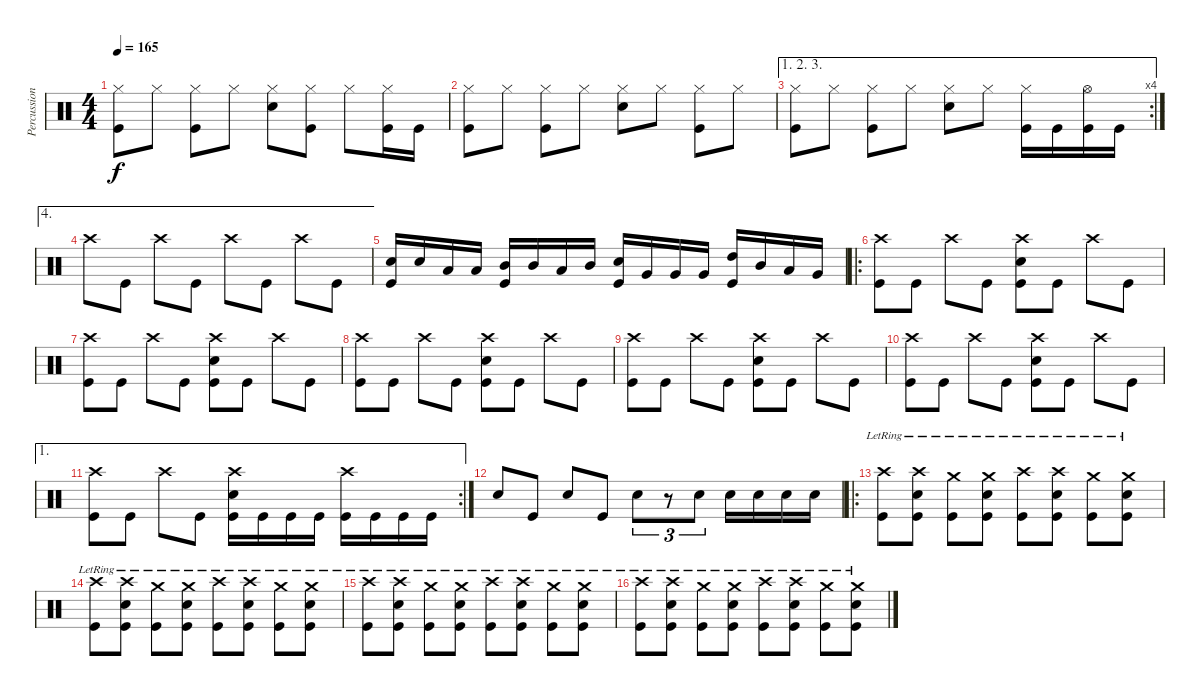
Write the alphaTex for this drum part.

\track ("Percussion" "Percussion") {instrument percussion}
\staff {score}
\articulation defaults
\ts (4 4)
\tempo 165
\clef neutral
\ks c
("Hi-Hat (closed)" "Kick (hit)").8{dy f} "Hi-Hat (closed)".8 ("Hi-Hat (closed)" "Kick (hit)").8 "Hi-Hat (closed)".8 ("Hi-Hat (closed)" "Electric Snare (hit)").8 ("Hi-Hat (closed)" "Kick (hit)").8 "Hi-Hat (closed)".8 ("Hi-Hat (closed)" "Kick (hit)").16 "Kick (hit)".16 |
("Hi-Hat (closed)" "Kick (hit)").8 "Hi-Hat (closed)".8 ("Hi-Hat (closed)" "Kick (hit)").8 "Hi-Hat (closed)".8 ("Hi-Hat (closed)" "Electric Snare (hit)").8 "Hi-Hat (closed)".8 ("Hi-Hat (closed)" "Kick (hit)").8 "Hi-Hat (closed)".8 |
\ae (1 2 3)
\rc 4
("Hi-Hat (closed)" "Kick (hit)").8 "Hi-Hat (closed)".8 ("Hi-Hat (closed)" "Kick (hit)").8 "Hi-Hat (closed)".8 ("Hi-Hat (closed)" "Electric Snare (hit)").8 "Hi-Hat (closed)".8 ("Hi-Hat (closed)" "Kick (hit)").16 "Kick (hit)".16 ("Hi-Hat (open)" "Kick (hit)").16 "Kick (hit)".16 |
\ae 4 "Crash high (hit)".8 "Kick (hit)".8 "Crash high (hit)".8 "Kick (hit)".8 "Crash high (hit)".8 "Kick (hit)".8 "Crash high (hit)".8 "Kick (hit)".8
|
("Electric Snare (hit)" "Kick (hit)").16 "Electric Snare (hit)".16 "Low Tom (hit)".16 "Low Tom (hit)".16 ("Mid Tom (hit)" "Kick (hit)").16 "Mid Tom (hit)".16 "Low Tom (hit)".16 "Mid Tom (hit)".16 ("Electric Snare (hit)" "Kick (hit)").16 "Very Low Tom (hit)".16 "Very Low Tom (hit)".16 "Very Low Tom (hit)".16 ("High Tom (hit)" "Kick (hit)").16 "Mid Tom (hit)".16 "Low Tom (hit)".16 "Very Low Tom (hit)".16 |
\ro
("Crash high (hit)" "Kick (hit)").8 "Kick (hit)".8 "Crash high (hit)".8 "Kick (hit)".8 ("Crash high (hit)" "Electric Snare (hit)" "Kick (hit)").8 "Kick (hit)".8 "Crash high (hit)".8 "Kick (hit)".8 |
("Crash high (hit)" "Kick (hit)").8 "Kick (hit)".8 "Crash high (hit)".8 "Kick (hit)".8 ("Crash high (hit)" "Electric Snare (hit)" "Kick (hit)").8 "Kick (hit)".8 "Crash high (hit)".8 "Kick (hit)".8 |
("Crash high (hit)" "Kick (hit)").8 "Kick (hit)".8 "Crash high (hit)".8 "Kick (hit)".8 ("Crash high (hit)" "Electric Snare (hit)" "Kick (hit)").8 "Kick (hit)".8 "Crash high (hit)".8 "Kick (hit)".8 |
("Crash high (hit)" "Kick (hit)").8 "Kick (hit)".8 "Crash high (hit)".8 "Kick (hit)".8 ("Crash high (hit)" "Electric Snare (hit)" "Kick (hit)").8 "Kick (hit)".8 "Crash high (hit)".8 "Kick (hit)".8 |
("Crash high (hit)" "Kick (hit)").8 "Kick (hit)".8 "Crash high (hit)".8 "Kick (hit)".8 ("Crash high (hit)" "Electric Snare (hit)" "Kick (hit)").8 "Kick (hit)".8 "Crash high (hit)".8 "Kick (hit)".8 |
\ae 1
\rc 2
("Crash high (hit)" "Kick (hit)").8 "Kick (hit)".8 "Crash high (hit)".8 "Kick (hit)".8 ("Crash high (hit)" "Electric Snare (hit)" "Kick (hit)").16 "Kick (hit)".16 "Kick (hit)".16 "Kick (hit)".16 ("Crash high (hit)" "Kick (hit)").16 "Kick (hit)".16 "Kick (hit)".16 "Kick (hit)".16 |
"Electric Snare (hit)".8 "Kick (hit)".8 "Electric Snare (hit)".8 "Kick (hit)".8 "Electric Snare (hit)".8{tu (3 2)} r.8{tu (3 2)} "Electric Snare (hit)".8{tu (3 2)} "Electric Snare (hit)".16 "Electric Snare (hit)".16 "Electric Snare (hit)".16 "Electric Snare (hit)".16 |
\ro
("Crash high (hit)"{lr} "Kick (hit)").8 ("Crash high (hit)"{lr} "Electric Snare (hit)" "Kick (hit)").8 ("Crash medium (hit)"{lr} "Kick (hit)").8 ("Crash medium (hit)"{lr} "Electric Snare (hit)" "Kick (hit)").8 ("Crash high (hit)"{lr} "Kick (hit)").8 ("Crash high (hit)"{lr} "Electric Snare (hit)" "Kick (hit)").8 ("Crash medium (hit)"{lr} "Kick (hit)").8 ("Crash medium (hit)"{lr} "Electric Snare (hit)" "Kick (hit)").8 |
("Crash high (hit)"{lr} "Kick (hit)").8 ("Crash high (hit)"{lr} "Electric Snare (hit)" "Kick (hit)").8 ("Crash medium (hit)"{lr} "Kick (hit)").8 ("Crash medium (hit)"{lr} "Electric Snare (hit)" "Kick (hit)").8 ("Crash high (hit)"{lr} "Kick (hit)").8 ("Crash high (hit)"{lr} "Electric Snare (hit)" "Kick (hit)").8 ("Crash medium (hit)"{lr} "Kick (hit)").8 ("Crash medium (hit)"{lr} "Electric Snare (hit)" "Kick (hit)").8 |
("Crash high (hit)"{lr} "Kick (hit)").8 ("Crash high (hit)"{lr} "Electric Snare (hit)" "Kick (hit)").8 ("Crash medium (hit)"{lr} "Kick (hit)").8 ("Crash medium (hit)"{lr} "Electric Snare (hit)" "Kick (hit)").8 ("Crash high (hit)"{lr} "Kick (hit)").8 ("Crash high (hit)"{lr} "Electric Snare (hit)" "Kick (hit)").8 ("Crash medium (hit)"{lr} "Kick (hit)").8 ("Crash medium (hit)"{lr} "Electric Snare (hit)" "Kick (hit)").8 |
("Crash high (hit)"{lr} "Kick (hit)").8 ("Crash high (hit)"{lr} "Electric Snare (hit)" "Kick (hit)").8 ("Crash medium (hit)"{lr} "Kick (hit)").8 ("Crash medium (hit)"{lr} "Electric Snare (hit)" "Kick (hit)").8 ("Crash high (hit)"{lr} "Kick (hit)").8 ("Crash high (hit)"{lr} "Electric Snare (hit)" "Kick (hit)").8 ("Crash medium (hit)"{lr} "Kick (hit)").8 ("Crash medium (hit)"{lr} "Electric Snare (hit)" "Kick (hit)").8
